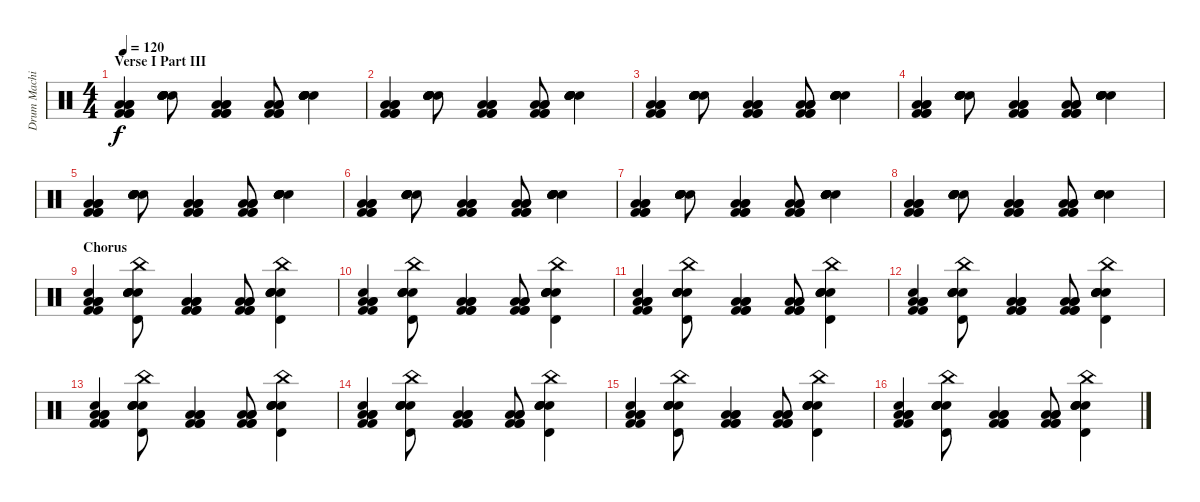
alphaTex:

\track ("Drum Machine" "Drum Machi") {instrument percussion}
\staff {score}
\articulation defaults
\ts (4 4)
\section ("" "Verse I Part III")
\tempo 120
\clef neutral
\ks c
("Kick (hit) 2" "Low Floor Tom (hit)" "Kick (hit) 2" "Low Floor Tom (hit)" "Kick (hit) 2" "Low Floor Tom (hit)").4{dy f} ("Electric Snare (hit)" "Snare (hit) 2" "Electric Snare (hit)" "Snare (hit) 2" "Electric Snare (hit)" "Snare (hit) 2").8 ("Kick (hit) 2" "Low Floor Tom (hit)" "Kick (hit) 2" "Low Floor Tom (hit)" "Kick (hit) 2" "Low Floor Tom (hit)").4 ("Kick (hit) 2" "Low Floor Tom (hit)" "Kick (hit) 2" "Low Floor Tom (hit)" "Kick (hit) 2" "Low Floor Tom (hit)").8 ("Electric Snare (hit)" "Snare (hit) 2" "Electric Snare (hit)" "Snare (hit) 2" "Electric Snare (hit)" "Snare (hit) 2").4 |
("Kick (hit) 2" "Low Floor Tom (hit)" "Kick (hit) 2" "Low Floor Tom (hit)" "Kick (hit) 2" "Low Floor Tom (hit)").4 ("Electric Snare (hit)" "Snare (hit) 2" "Electric Snare (hit)" "Snare (hit) 2" "Electric Snare (hit)" "Snare (hit) 2").8 ("Kick (hit) 2" "Low Floor Tom (hit)" "Kick (hit) 2" "Low Floor Tom (hit)" "Kick (hit) 2" "Low Floor Tom (hit)").4 ("Kick (hit) 2" "Low Floor Tom (hit)" "Kick (hit) 2" "Low Floor Tom (hit)" "Kick (hit) 2" "Low Floor Tom (hit)").8 ("Electric Snare (hit)" "Snare (hit) 2" "Electric Snare (hit)" "Snare (hit) 2" "Electric Snare (hit)" "Snare (hit) 2").4 |
("Kick (hit) 2" "Low Floor Tom (hit)" "Kick (hit) 2" "Low Floor Tom (hit)" "Kick (hit) 2" "Low Floor Tom (hit)").4 ("Electric Snare (hit)" "Snare (hit) 2" "Electric Snare (hit)" "Snare (hit) 2" "Electric Snare (hit)" "Snare (hit) 2").8 ("Kick (hit) 2" "Low Floor Tom (hit)" "Kick (hit) 2" "Low Floor Tom (hit)" "Kick (hit) 2" "Low Floor Tom (hit)").4 ("Kick (hit) 2" "Low Floor Tom (hit)" "Kick (hit) 2" "Low Floor Tom (hit)" "Kick (hit) 2" "Low Floor Tom (hit)").8 ("Electric Snare (hit)" "Snare (hit) 2" "Electric Snare (hit)" "Snare (hit) 2" "Electric Snare (hit)" "Snare (hit) 2").4 |
("Kick (hit) 2" "Low Floor Tom (hit)" "Kick (hit) 2" "Low Floor Tom (hit)" "Kick (hit) 2" "Low Floor Tom (hit)").4 ("Electric Snare (hit)" "Snare (hit) 2" "Electric Snare (hit)" "Snare (hit) 2" "Electric Snare (hit)" "Snare (hit) 2").8 ("Kick (hit) 2" "Low Floor Tom (hit)" "Kick (hit) 2" "Low Floor Tom (hit)" "Kick (hit) 2" "Low Floor Tom (hit)").4 ("Kick (hit) 2" "Low Floor Tom (hit)" "Kick (hit) 2" "Low Floor Tom (hit)" "Kick (hit) 2" "Low Floor Tom (hit)").8 ("Electric Snare (hit)" "Snare (hit) 2" "Electric Snare (hit)" "Snare (hit) 2" "Electric Snare (hit)" "Snare (hit) 2").4 |
("Kick (hit) 2" "Low Floor Tom (hit)" "Kick (hit) 2" "Low Floor Tom (hit)" "Kick (hit) 2" "Low Floor Tom (hit)").4 ("Electric Snare (hit)" "Snare (hit) 2" "Electric Snare (hit)" "Snare (hit) 2" "Electric Snare (hit)" "Snare (hit) 2").8 ("Kick (hit) 2" "Low Floor Tom (hit)" "Kick (hit) 2" "Low Floor Tom (hit)" "Kick (hit) 2" "Low Floor Tom (hit)").4 ("Kick (hit) 2" "Low Floor Tom (hit)" "Kick (hit) 2" "Low Floor Tom (hit)" "Kick (hit) 2" "Low Floor Tom (hit)").8 ("Electric Snare (hit)" "Snare (hit) 2" "Electric Snare (hit)" "Snare (hit) 2" "Electric Snare (hit)" "Snare (hit) 2").4 |
("Kick (hit) 2" "Low Floor Tom (hit)" "Kick (hit) 2" "Low Floor Tom (hit)" "Kick (hit) 2" "Low Floor Tom (hit)").4 ("Electric Snare (hit)" "Snare (hit) 2" "Electric Snare (hit)" "Snare (hit) 2" "Electric Snare (hit)" "Snare (hit) 2").8 ("Kick (hit) 2" "Low Floor Tom (hit)" "Kick (hit) 2" "Low Floor Tom (hit)" "Kick (hit) 2" "Low Floor Tom (hit)").4 ("Kick (hit) 2" "Low Floor Tom (hit)" "Kick (hit) 2" "Low Floor Tom (hit)" "Kick (hit) 2" "Low Floor Tom (hit)").8 ("Electric Snare (hit)" "Snare (hit) 2" "Electric Snare (hit)" "Snare (hit) 2" "Electric Snare (hit)" "Snare (hit) 2").4 |
("Kick (hit) 2" "Low Floor Tom (hit)" "Kick (hit) 2" "Low Floor Tom (hit)" "Kick (hit) 2" "Low Floor Tom (hit)").4 ("Electric Snare (hit)" "Snare (hit) 2" "Electric Snare (hit)" "Snare (hit) 2" "Electric Snare (hit)" "Snare (hit) 2").8 ("Kick (hit) 2" "Low Floor Tom (hit)" "Kick (hit) 2" "Low Floor Tom (hit)" "Kick (hit) 2" "Low Floor Tom (hit)").4 ("Kick (hit) 2" "Low Floor Tom (hit)" "Kick (hit) 2" "Low Floor Tom (hit)" "Kick (hit) 2" "Low Floor Tom (hit)").8 ("Electric Snare (hit)" "Snare (hit) 2" "Electric Snare (hit)" "Snare (hit) 2" "Electric Snare (hit)" "Snare (hit) 2").4 |
("Kick (hit) 2" "Low Floor Tom (hit)" "Kick (hit) 2" "Low Floor Tom (hit)" "Kick (hit) 2" "Low Floor Tom (hit)").4 ("Electric Snare (hit)" "Snare (hit) 2" "Electric Snare (hit)" "Snare (hit) 2" "Electric Snare (hit)" "Snare (hit) 2").8 ("Kick (hit) 2" "Low Floor Tom (hit)" "Kick (hit) 2" "Low Floor Tom (hit)" "Kick (hit) 2" "Low Floor Tom (hit)").4 ("Kick (hit) 2" "Low Floor Tom (hit)" "Kick (hit) 2" "Low Floor Tom (hit)" "Kick (hit) 2" "Low Floor Tom (hit)").8 ("Electric Snare (hit)" "Snare (hit) 2" "Electric Snare (hit)" "Snare (hit) 2" "Electric Snare (hit)" "Snare (hit) 2").4 |
\section ("" "Chorus")
("Electric Snare (hit)" "Low Floor Tom (hit)" "Kick (hit) 2" "Low Floor Tom (hit)" "Kick (hit) 2" "Low Floor Tom (hit)").4 ("Timbale high (hit)" "China (hit)" "Electric Snare (hit)" "Electric Snare (hit)" "Electric Snare (hit)" "Electric Snare (hit)").8 ("Kick (hit) 2" "Low Floor Tom (hit)" "Kick (hit) 2" "Low Floor Tom (hit)" "Kick (hit) 2" "Low Floor Tom (hit)").4 ("Kick (hit) 2" "Low Floor Tom (hit)" "Kick (hit) 2" "Low Floor Tom (hit)" "Kick (hit) 2" "Low Floor Tom (hit)").8 ("Timbale high (hit)" "China (hit)" "Electric Snare (hit)" "Electric Snare (hit)" "Electric Snare (hit)" "Electric Snare (hit)").4 |
("Electric Snare (hit)" "Low Floor Tom (hit)" "Kick (hit) 2" "Low Floor Tom (hit)" "Kick (hit) 2" "Low Floor Tom (hit)").4 ("Timbale high (hit)" "China (hit)" "Electric Snare (hit)" "Electric Snare (hit)" "Electric Snare (hit)" "Electric Snare (hit)").8 ("Kick (hit) 2" "Low Floor Tom (hit)" "Kick (hit) 2" "Low Floor Tom (hit)" "Kick (hit) 2" "Low Floor Tom (hit)").4 ("Kick (hit) 2" "Low Floor Tom (hit)" "Kick (hit) 2" "Low Floor Tom (hit)" "Kick (hit) 2" "Low Floor Tom (hit)").8 ("Timbale high (hit)" "China (hit)" "Electric Snare (hit)" "Electric Snare (hit)" "Electric Snare (hit)" "Electric Snare (hit)").4 |
("Electric Snare (hit)" "Low Floor Tom (hit)" "Kick (hit) 2" "Low Floor Tom (hit)" "Kick (hit) 2" "Low Floor Tom (hit)").4 ("Timbale high (hit)" "China (hit)" "Electric Snare (hit)" "Electric Snare (hit)" "Electric Snare (hit)" "Electric Snare (hit)").8 ("Kick (hit) 2" "Low Floor Tom (hit)" "Kick (hit) 2" "Low Floor Tom (hit)" "Kick (hit) 2" "Low Floor Tom (hit)").4 ("Kick (hit) 2" "Low Floor Tom (hit)" "Kick (hit) 2" "Low Floor Tom (hit)" "Kick (hit) 2" "Low Floor Tom (hit)").8 ("Timbale high (hit)" "China (hit)" "Electric Snare (hit)" "Electric Snare (hit)" "Electric Snare (hit)" "Electric Snare (hit)").4 |
("Electric Snare (hit)" "Low Floor Tom (hit)" "Kick (hit) 2" "Low Floor Tom (hit)" "Kick (hit) 2" "Low Floor Tom (hit)").4 ("Timbale high (hit)" "China (hit)" "Electric Snare (hit)" "Electric Snare (hit)" "Electric Snare (hit)" "Electric Snare (hit)").8 ("Kick (hit) 2" "Low Floor Tom (hit)" "Kick (hit) 2" "Low Floor Tom (hit)" "Kick (hit) 2" "Low Floor Tom (hit)").4 ("Kick (hit) 2" "Low Floor Tom (hit)" "Kick (hit) 2" "Low Floor Tom (hit)" "Kick (hit) 2" "Low Floor Tom (hit)").8 ("Timbale high (hit)" "China (hit)" "Electric Snare (hit)" "Electric Snare (hit)" "Electric Snare (hit)" "Electric Snare (hit)").4 |
("Electric Snare (hit)" "Low Floor Tom (hit)" "Kick (hit) 2" "Low Floor Tom (hit)" "Kick (hit) 2" "Low Floor Tom (hit)").4 ("Timbale high (hit)" "China (hit)" "Electric Snare (hit)" "Electric Snare (hit)" "Electric Snare (hit)" "Electric Snare (hit)").8 ("Kick (hit) 2" "Low Floor Tom (hit)" "Kick (hit) 2" "Low Floor Tom (hit)" "Kick (hit) 2" "Low Floor Tom (hit)").4 ("Kick (hit) 2" "Low Floor Tom (hit)" "Kick (hit) 2" "Low Floor Tom (hit)" "Kick (hit) 2" "Low Floor Tom (hit)").8 ("Timbale high (hit)" "China (hit)" "Electric Snare (hit)" "Electric Snare (hit)" "Electric Snare (hit)" "Electric Snare (hit)").4 |
("Electric Snare (hit)" "Low Floor Tom (hit)" "Kick (hit) 2" "Low Floor Tom (hit)" "Kick (hit) 2" "Low Floor Tom (hit)").4 ("Timbale high (hit)" "China (hit)" "Electric Snare (hit)" "Electric Snare (hit)" "Electric Snare (hit)" "Electric Snare (hit)").8 ("Kick (hit) 2" "Low Floor Tom (hit)" "Kick (hit) 2" "Low Floor Tom (hit)" "Kick (hit) 2" "Low Floor Tom (hit)").4 ("Kick (hit) 2" "Low Floor Tom (hit)" "Kick (hit) 2" "Low Floor Tom (hit)" "Kick (hit) 2" "Low Floor Tom (hit)").8 ("Timbale high (hit)" "China (hit)" "Electric Snare (hit)" "Electric Snare (hit)" "Electric Snare (hit)" "Electric Snare (hit)").4 |
("Electric Snare (hit)" "Low Floor Tom (hit)" "Kick (hit) 2" "Low Floor Tom (hit)" "Kick (hit) 2" "Low Floor Tom (hit)").4 ("Timbale high (hit)" "China (hit)" "Electric Snare (hit)" "Electric Snare (hit)" "Electric Snare (hit)" "Electric Snare (hit)").8 ("Kick (hit) 2" "Low Floor Tom (hit)" "Kick (hit) 2" "Low Floor Tom (hit)" "Kick (hit) 2" "Low Floor Tom (hit)").4 ("Kick (hit) 2" "Low Floor Tom (hit)" "Kick (hit) 2" "Low Floor Tom (hit)" "Kick (hit) 2" "Low Floor Tom (hit)").8 ("Timbale high (hit)" "China (hit)" "Electric Snare (hit)" "Electric Snare (hit)" "Electric Snare (hit)" "Electric Snare (hit)").4 |
("Electric Snare (hit)" "Low Floor Tom (hit)" "Kick (hit) 2" "Low Floor Tom (hit)" "Kick (hit) 2" "Low Floor Tom (hit)").4 ("Timbale high (hit)" "China (hit)" "Electric Snare (hit)" "Electric Snare (hit)" "Electric Snare (hit)" "Electric Snare (hit)").8 ("Kick (hit) 2" "Low Floor Tom (hit)" "Kick (hit) 2" "Low Floor Tom (hit)" "Kick (hit) 2" "Low Floor Tom (hit)").4 ("Kick (hit) 2" "Low Floor Tom (hit)" "Kick (hit) 2" "Low Floor Tom (hit)" "Kick (hit) 2" "Low Floor Tom (hit)").8 ("Timbale high (hit)" "China (hit)" "Electric Snare (hit)" "Electric Snare (hit)" "Electric Snare (hit)" "Electric Snare (hit)").4
